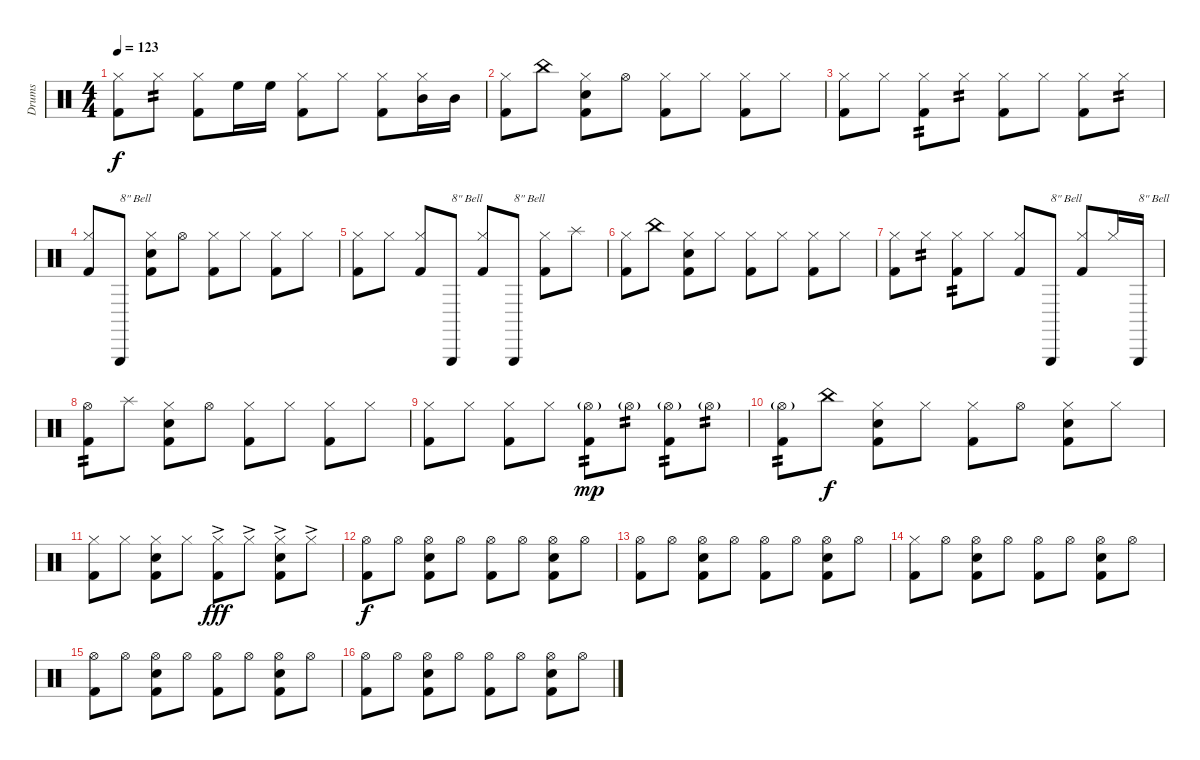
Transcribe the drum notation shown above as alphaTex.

\track ("Drums" "Drums") {instrument percussion}
\staff {score}
\articulation defaults
\ts (4 4)
\tempo 123
\clef neutral
\ks c
("Hi-Hat (closed)" "Kick (hit) 2").8{dy f} "Hi-Hat (closed)".8{tp 2} ("Hi-Hat (closed)" "Kick (hit) 2").8 "High Floor Tom (hit)".16 "High Floor Tom (hit)".16 ("Hi-Hat (closed)" "Kick (hit) 2").8 "Hi-Hat (closed)".8 ("Hi-Hat (closed)" "Kick (hit) 2").8 ("Hi-Hat (closed)" "Mid Tom (hit)").16 "Mid Tom (hit)".16 |
("Hi-Hat (closed)" "Kick (hit) 2").8 "China (hit)".8 ("Hi-Hat (closed)" "Snare (hit) 2" "Kick (hit) 2").8 "Hi-Hat (open)".8 ("Hi-Hat (closed)" "Kick (hit) 2").8 "Hi-Hat (closed)".8 ("Hi-Hat (closed)" "Kick (hit) 2").8 "Hi-Hat (closed)".8 |
("Hi-Hat (closed)" "Kick (hit) 2").8 "Hi-Hat (closed)".8 ("Hi-Hat (closed)" "Kick (hit) 2").8{tp 2} "Hi-Hat (closed)".8{tp 2} ("Hi-Hat (closed)" "Kick (hit) 2").8 "Hi-Hat (closed)".8 ("Hi-Hat (closed)" "Kick (hit) 2").8 "Hi-Hat (closed)".8{tp 2} |
("Hi-Hat (closed)" "Kick (hit) 2").8 "Triangle (hit)".8{txt "8\" Bell"} ("Hi-Hat (closed)" "Snare (hit) 2" "Kick (hit) 2").8 "Hi-Hat (open)".8 ("Hi-Hat (closed)" "Kick (hit) 2").8 "Hi-Hat (closed)".8 ("Hi-Hat (closed)" "Kick (hit) 2").8 "Hi-Hat (closed)".8 |
("Hi-Hat (closed)" "Kick (hit) 2").8 "Hi-Hat (closed)".8 ("Hi-Hat (closed)" "Kick (hit) 2").8 "Triangle (hit)".8{txt "8\" Bell"} ("Hi-Hat (closed)" "Kick (hit) 2").8 "Triangle (hit)".8{txt "8\" Bell"} ("Hi-Hat (closed)" "Kick (hit) 2").8 "Splash (hit)".8 |
("Hi-Hat (closed)" "Kick (hit) 2").8 "China (hit)".8 ("Hi-Hat (closed)" "Snare (hit) 2" "Kick (hit) 2").8 "Hi-Hat (closed)".8 ("Hi-Hat (closed)" "Kick (hit) 2").8 "Hi-Hat (closed)".8 ("Hi-Hat (closed)" "Kick (hit) 2").8 "Hi-Hat (closed)".8 |
("Hi-Hat (closed)" "Kick (hit) 2").8 "Hi-Hat (closed)".8{tp 2} ("Hi-Hat (closed)" "Kick (hit) 2").8{tp 2} "Hi-Hat (closed)".8 ("Hi-Hat (closed)" "Kick (hit) 2").8 "Triangle (hit)".8{txt "8\" Bell"} ("Hi-Hat (closed)" "Kick (hit) 2").8 "Hi-Hat (closed)".16 "Triangle (hit)".16{txt "8\" Bell"} |
("Hi-Hat (open)" "Kick (hit) 2").8{tp 2} "Splash (hit)".8 ("Hi-Hat (closed)" "Snare (hit) 2" "Kick (hit) 2").8 "Hi-Hat (open)".8 ("Hi-Hat (closed)" "Kick (hit) 2").8 "Hi-Hat (closed)".8 ("Hi-Hat (closed)" "Kick (hit) 2").8 "Hi-Hat (closed)".8 |
("Hi-Hat (closed)" "Kick (hit) 2").8 "Hi-Hat (closed)".8 ("Hi-Hat (closed)" "Kick (hit) 2").8 "Hi-Hat (closed)".8 ("Hi-Hat (open)"{g} "Kick (hit) 2").8{tp 2 dy mp} "Hi-Hat (open)"{g}.8{tp 2} ("Hi-Hat (open)"{g} "Kick (hit) 2").8{tp 2} "Hi-Hat (open)"{g}.8{tp 2} |
("Hi-Hat (open)"{g} "Kick (hit) 2").8{tp 2} "China (hit)".8{dy f} ("Hi-Hat (closed)" "Snare (hit) 2" "Kick (hit) 2").8 "Hi-Hat (closed)".8 ("Hi-Hat (closed)" "Kick (hit) 2").8 "Hi-Hat (open)".8 ("Hi-Hat (closed)" "Snare (hit) 2" "Kick (hit) 2").8 "Hi-Hat (closed)".8 |
("Hi-Hat (closed)" "Kick (hit) 2").8 "Hi-Hat (closed)".8 ("Hi-Hat (closed)" "Snare (hit) 2" "Kick (hit) 2").8 "Hi-Hat (closed)".8 ("Hi-Hat (closed)"{ac} "Kick (hit) 2").8{dy fff} "Hi-Hat (closed)"{ac}.8 ("Hi-Hat (closed)"{ac} "Snare (hit) 2" "Kick (hit) 2").8 "Hi-Hat (closed)"{ac}.8 |
("Hi-Hat (open)" "Kick (hit) 2").8{dy f} "Hi-Hat (open)".8 ("Hi-Hat (open)" "Snare (hit) 2" "Kick (hit) 2").8 "Hi-Hat (open)".8 ("Hi-Hat (open)" "Kick (hit) 2").8 "Hi-Hat (open)".8 ("Hi-Hat (open)" "Snare (hit) 2" "Kick (hit) 2").8 "Hi-Hat (open)".8 |
("Hi-Hat (open)" "Kick (hit) 2").8 "Hi-Hat (open)".8 ("Hi-Hat (open)" "Snare (hit) 2" "Kick (hit) 2").8 "Hi-Hat (open)".8 ("Hi-Hat (open)" "Kick (hit) 2").8 "Hi-Hat (open)".8 ("Hi-Hat (open)" "Snare (hit) 2" "Kick (hit) 2").8 "Hi-Hat (open)".8 |
("Hi-Hat (closed)" "Kick (hit) 2").8 "Hi-Hat (open)".8 ("Hi-Hat (open)" "Snare (hit) 2" "Kick (hit) 2").8 "Hi-Hat (open)".8 ("Hi-Hat (open)" "Kick (hit) 2").8 "Hi-Hat (open)".8 ("Hi-Hat (open)" "Snare (hit) 2" "Kick (hit) 2").8 "Hi-Hat (open)".8 |
("Hi-Hat (open)" "Kick (hit) 2").8 "Hi-Hat (open)".8 ("Hi-Hat (open)" "Snare (hit) 2" "Kick (hit) 2").8 "Hi-Hat (open)".8 ("Hi-Hat (open)" "Kick (hit) 2").8 "Hi-Hat (open)".8 ("Hi-Hat (open)" "Snare (hit) 2" "Kick (hit) 2").8 "Hi-Hat (open)".8 |
("Hi-Hat (open)" "Kick (hit) 2").8 "Hi-Hat (open)".8 ("Hi-Hat (open)" "Snare (hit) 2" "Kick (hit) 2").8 "Hi-Hat (open)".8 ("Hi-Hat (open)" "Kick (hit) 2").8 "Hi-Hat (open)".8 ("Hi-Hat (open)" "Snare (hit) 2" "Kick (hit) 2").8 "Hi-Hat (open)".8
